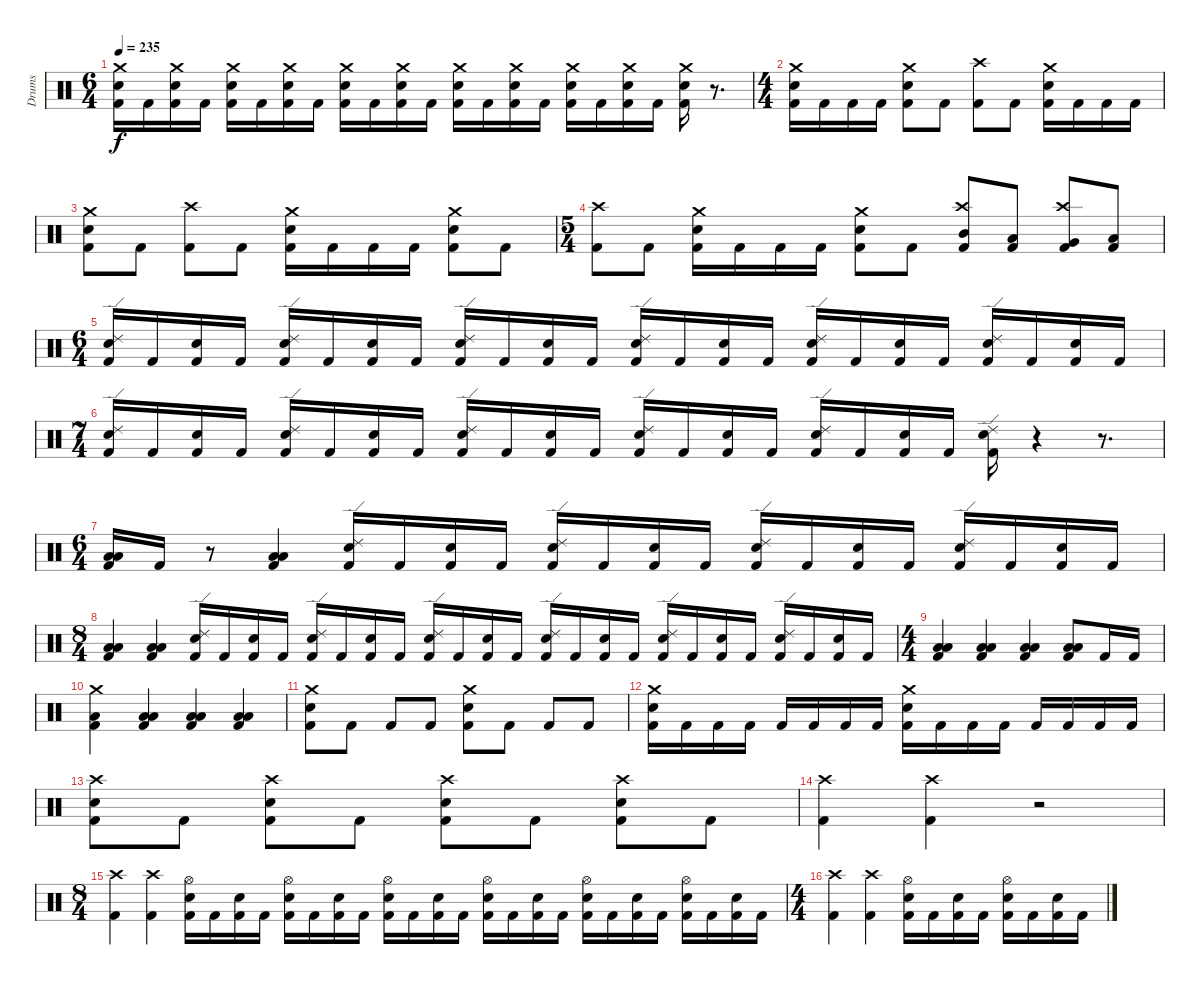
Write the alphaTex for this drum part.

\track ("Drums" "Drums") {instrument percussion}
\staff {score}
\articulation defaults
\ts (6 4)
\tempo 235
\clef neutral
\ks c
("Crash medium (hit)" "Electric Snare (hit)" "Kick (hit) 2").16{dy f} "Kick (hit) 2".16 ("Crash medium (hit)" "Electric Snare (hit)" "Kick (hit) 2").16 "Kick (hit) 2".16 ("Crash medium (hit)" "Electric Snare (hit)" "Kick (hit) 2").16 "Kick (hit) 2".16 ("Crash medium (hit)" "Electric Snare (hit)" "Kick (hit) 2").16 "Kick (hit) 2".16 ("Crash medium (hit)" "Electric Snare (hit)" "Kick (hit) 2").16 "Kick (hit) 2".16 ("Crash medium (hit)" "Electric Snare (hit)" "Kick (hit) 2").16 "Kick (hit) 2".16 ("Crash medium (hit)" "Electric Snare (hit)" "Kick (hit) 2").16 "Kick (hit) 2".16 ("Crash medium (hit)" "Electric Snare (hit)" "Kick (hit) 2").16 "Kick (hit) 2".16 ("Crash medium (hit)" "Electric Snare (hit)" "Kick (hit) 2").16 "Kick (hit) 2".16 ("Crash medium (hit)" "Electric Snare (hit)" "Kick (hit) 2").16 "Kick (hit) 2".16 ("Crash medium (hit)" "Electric Snare (hit)" "Kick (hit) 2").16 r.8{d} |
\ts (4 4)
("Crash medium (hit)" "Electric Snare (hit)" "Kick (hit) 2").16 "Kick (hit) 2".16 "Kick (hit) 2".16 "Kick (hit) 2".16 ("Crash medium (hit)" "Electric Snare (hit)" "Kick (hit) 2").8 "Kick (hit) 2".8 ("Crash high (hit)" "Kick (hit) 2").8 "Kick (hit) 2".8 ("Crash medium (hit)" "Electric Snare (hit)" "Kick (hit) 2").16 "Kick (hit) 2".16 "Kick (hit) 2".16 "Kick (hit) 2".16 |
("Crash medium (hit)" "Electric Snare (hit)" "Kick (hit) 2").8 "Kick (hit) 2".8 ("Crash high (hit)" "Kick (hit) 2").8 "Kick (hit) 2".8 ("Crash medium (hit)" "Electric Snare (hit)" "Kick (hit) 2").16 "Kick (hit) 2".16 "Kick (hit) 2".16 "Kick (hit) 2".16 ("Crash medium (hit)" "Electric Snare (hit)" "Kick (hit) 2").8 "Kick (hit) 2".8 |
\ts (5 4)
("Crash high (hit)" "Kick (hit) 2").8 "Kick (hit) 2".8 ("Crash medium (hit)" "Electric Snare (hit)" "Kick (hit) 2").16 "Kick (hit) 2".16 "Kick (hit) 2".16 "Kick (hit) 2".16 ("Crash medium (hit)" "Electric Snare (hit)" "Kick (hit) 2").8 "Kick (hit) 2".8 ("Crash high (hit)" "Mid Tom (hit)" "Kick (hit) 2").8 ("Low Tom (hit)" "Kick (hit) 2").8 ("Crash high (hit)" "Very Low Tom (hit)" "Kick (hit) 2").8 ("Low Floor Tom (hit)" "Kick (hit) 2").8 |
\ts (6 4)
("Ride (edge) 2" "Electric Snare (hit)" "Kick (hit) 2").16 "Kick (hit) 2".16 ("Electric Snare (hit)" "Kick (hit) 2").16 "Kick (hit) 2".16 ("Ride (edge) 2" "Electric Snare (hit)" "Kick (hit) 2").16 "Kick (hit) 2".16 ("Electric Snare (hit)" "Kick (hit) 2").16 "Kick (hit) 2".16 ("Ride (edge) 2" "Electric Snare (hit)" "Kick (hit) 2").16 "Kick (hit) 2".16 ("Electric Snare (hit)" "Kick (hit) 2").16 "Kick (hit) 2".16 ("Ride (edge) 2" "Electric Snare (hit)" "Kick (hit) 2").16 "Kick (hit) 2".16 ("Electric Snare (hit)" "Kick (hit) 2").16 "Kick (hit) 2".16 ("Ride (edge) 2" "Electric Snare (hit)" "Kick (hit) 2").16 "Kick (hit) 2".16 ("Electric Snare (hit)" "Kick (hit) 2").16 "Kick (hit) 2".16 ("Ride (edge) 2" "Electric Snare (hit)" "Kick (hit) 2").16 "Kick (hit) 2".16 ("Electric Snare (hit)" "Kick (hit) 2").16 "Kick (hit) 2".16 |
\ts (7 4)
("Ride (edge) 2" "Electric Snare (hit)" "Kick (hit) 2").16 "Kick (hit) 2".16 ("Electric Snare (hit)" "Kick (hit) 2").16 "Kick (hit) 2".16 ("Ride (edge) 2" "Electric Snare (hit)" "Kick (hit) 2").16 "Kick (hit) 2".16 ("Electric Snare (hit)" "Kick (hit) 2").16 "Kick (hit) 2".16 ("Ride (edge) 2" "Electric Snare (hit)" "Kick (hit) 2").16 "Kick (hit) 2".16 ("Electric Snare (hit)" "Kick (hit) 2").16 "Kick (hit) 2".16 ("Ride (edge) 2" "Electric Snare (hit)" "Kick (hit) 2").16 "Kick (hit) 2".16 ("Electric Snare (hit)" "Kick (hit) 2").16 "Kick (hit) 2".16 ("Ride (edge) 2" "Electric Snare (hit)" "Kick (hit) 2").16 "Kick (hit) 2".16 ("Electric Snare (hit)" "Kick (hit) 2").16 "Kick (hit) 2".16 ("Ride (edge) 2" "Electric Snare (hit)" "Kick (hit) 2").16 r.4 r.8{d} |
\ts (6 4)
("Low Floor Tom (hit)" "Low Floor Tom (hit)" "Kick (hit) 2").16 "Kick (hit) 2".16 r.8 ("Low Floor Tom (hit)" "Low Floor Tom (hit)" "Kick (hit) 2").4 ("Ride (edge) 2" "Electric Snare (hit)" "Kick (hit) 2").16 "Kick (hit) 2".16 ("Electric Snare (hit)" "Kick (hit) 2").16 "Kick (hit) 2".16 ("Ride (edge) 2" "Electric Snare (hit)" "Kick (hit) 2").16 "Kick (hit) 2".16 ("Electric Snare (hit)" "Kick (hit) 2").16 "Kick (hit) 2".16 ("Ride (edge) 2" "Electric Snare (hit)" "Kick (hit) 2").16 "Kick (hit) 2".16 ("Electric Snare (hit)" "Kick (hit) 2").16 "Kick (hit) 2".16 ("Ride (edge) 2" "Electric Snare (hit)" "Kick (hit) 2").16 "Kick (hit) 2".16 ("Electric Snare (hit)" "Kick (hit) 2").16 "Kick (hit) 2".16 |
\ts (8 4)
("Low Floor Tom (hit)" "Low Floor Tom (hit)" "Kick (hit) 2").4 ("Low Floor Tom (hit)" "Low Floor Tom (hit)" "Kick (hit) 2").4 ("Ride (edge) 2" "Electric Snare (hit)" "Kick (hit) 2").16 "Kick (hit) 2".16 ("Electric Snare (hit)" "Kick (hit) 2").16 "Kick (hit) 2".16 ("Ride (edge) 2" "Electric Snare (hit)" "Kick (hit) 2").16 "Kick (hit) 2".16 ("Electric Snare (hit)" "Kick (hit) 2").16 "Kick (hit) 2".16 ("Ride (edge) 2" "Electric Snare (hit)" "Kick (hit) 2").16 "Kick (hit) 2".16 ("Electric Snare (hit)" "Kick (hit) 2").16 "Kick (hit) 2".16 ("Ride (edge) 2" "Electric Snare (hit)" "Kick (hit) 2").16 "Kick (hit) 2".16 ("Electric Snare (hit)" "Kick (hit) 2").16 "Kick (hit) 2".16 ("Ride (edge) 2" "Electric Snare (hit)" "Kick (hit) 2").16 "Kick (hit) 2".16 ("Electric Snare (hit)" "Kick (hit) 2").16 "Kick (hit) 2".16 ("Ride (edge) 2" "Electric Snare (hit)" "Kick (hit) 2").16 "Kick (hit) 2".16 ("Electric Snare (hit)" "Kick (hit) 2").16 "Kick (hit) 2".16 |
\ts (4 4)
("Low Floor Tom (hit)" "Low Floor Tom (hit)" "Kick (hit) 2").4 ("Low Floor Tom (hit)" "Low Floor Tom (hit)" "Kick (hit) 2").4 ("Low Floor Tom (hit)" "Low Floor Tom (hit)" "Kick (hit) 2").4 ("Low Floor Tom (hit)" "Low Floor Tom (hit)" "Kick (hit) 2").8 "Kick (hit) 2".16 "Kick (hit) 2".16 |
("Crash medium (hit)" "Low Floor Tom (hit)" "Kick (hit) 2").4 ("Low Floor Tom (hit)" "Low Floor Tom (hit)" "Kick (hit) 2").4 ("Low Floor Tom (hit)" "Low Floor Tom (hit)" "Kick (hit) 2").4 ("Low Floor Tom (hit)" "Low Floor Tom (hit)" "Kick (hit) 2").4 |
("Crash medium (hit)" "Electric Snare (hit)" "Kick (hit) 2").8 "Kick (hit) 2".8 "Kick (hit) 2".8 "Kick (hit) 2".8 ("Crash medium (hit)" "Electric Snare (hit)" "Kick (hit) 2").8 "Kick (hit) 2".8 "Kick (hit) 2".8 "Kick (hit) 2".8 |
("Crash medium (hit)" "Electric Snare (hit)" "Kick (hit) 2").16 "Kick (hit) 2".16 "Kick (hit) 2".16 "Kick (hit) 2".16 "Kick (hit) 2".16 "Kick (hit) 2".16 "Kick (hit) 2".16 "Kick (hit) 2".16 ("Crash medium (hit)" "Electric Snare (hit)" "Kick (hit) 2").16 "Kick (hit) 2".16 "Kick (hit) 2".16 "Kick (hit) 2".16 "Kick (hit) 2".16 "Kick (hit) 2".16 "Kick (hit) 2".16 "Kick (hit) 2".16 |
("Crash high (hit)" "Electric Snare (hit)" "Kick (hit) 2").8 "Kick (hit) 2".8 ("Crash high (hit)" "Electric Snare (hit)" "Kick (hit) 2").8 "Kick (hit) 2".8 ("Crash high (hit)" "Electric Snare (hit)" "Kick (hit) 2").8 "Kick (hit) 2".8 ("Crash high (hit)" "Electric Snare (hit)" "Kick (hit) 2").8 "Kick (hit) 2".8 |
("Crash high (hit)" "Kick (hit) 2").4 ("Crash high (hit)" "Kick (hit) 2").4 r.2 |
\ts (8 4)
("Crash high (hit)" "Kick (hit) 2").4 ("Crash high (hit)" "Kick (hit) 2").4 ("Hi-Hat (open)" "Electric Snare (hit)" "Kick (hit) 2").16 "Kick (hit) 2".16 ("Electric Snare (hit)" "Kick (hit) 2").16 "Kick (hit) 2".16 ("Hi-Hat (open)" "Electric Snare (hit)" "Kick (hit) 2").16 "Kick (hit) 2".16 ("Electric Snare (hit)" "Kick (hit) 2").16 "Kick (hit) 2".16 ("Hi-Hat (open)" "Electric Snare (hit)" "Kick (hit) 2").16 "Kick (hit) 2".16 ("Electric Snare (hit)" "Kick (hit) 2").16 "Kick (hit) 2".16 ("Hi-Hat (open)" "Electric Snare (hit)" "Kick (hit) 2").16 "Kick (hit) 2".16 ("Electric Snare (hit)" "Kick (hit) 2").16 "Kick (hit) 2".16 ("Hi-Hat (open)" "Electric Snare (hit)" "Kick (hit) 2").16 "Kick (hit) 2".16 ("Electric Snare (hit)" "Kick (hit) 2").16 "Kick (hit) 2".16 ("Hi-Hat (open)" "Electric Snare (hit)" "Kick (hit) 2").16 "Kick (hit) 2".16 ("Electric Snare (hit)" "Kick (hit) 2").16 "Kick (hit) 2".16 |
\ts (4 4)
("Crash high (hit)" "Kick (hit) 2").4 ("Crash high (hit)" "Kick (hit) 2").4 ("Hi-Hat (open)" "Electric Snare (hit)" "Kick (hit) 2").16 "Kick (hit) 2".16 ("Electric Snare (hit)" "Kick (hit) 2").16 "Kick (hit) 2".16 ("Hi-Hat (open)" "Electric Snare (hit)" "Kick (hit) 2").16 "Kick (hit) 2".16 ("Electric Snare (hit)" "Kick (hit) 2").16 "Kick (hit) 2".16
